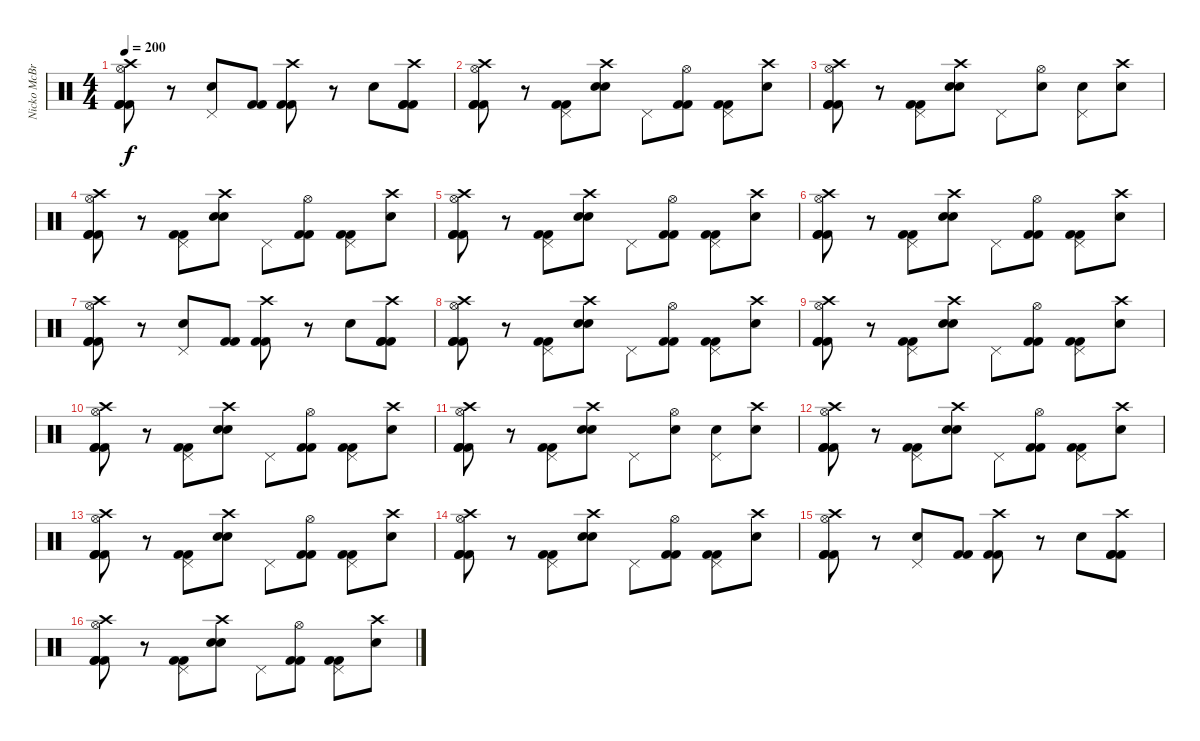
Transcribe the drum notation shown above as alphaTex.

\track ("Nicko McBrain" "Nicko McBr") {instrument percussion}
\staff {score}
\articulation defaults
\ts (4 4)
\tempo 200
\clef neutral
\ks c
("Crash high (hit)" "Hi-Hat (open)" "Kick (hit) 2" "Kick (hit) 2" "Kick (hit) 2").8{dy f} r.8 ("Pedal Hi-Hat (hit)" "Snare (hit) 2").8 ("Kick (hit) 2" "Kick (hit) 2").8 ("Crash high (hit)" "Kick (hit) 2" "Kick (hit) 2").8 r.8 "Snare (hit) 2".8 ("Crash high (hit)" "Kick (hit) 2" "Kick (hit) 2" "Kick (hit) 2").8 |
("Crash high (hit)" "Hi-Hat (open)" "Kick (hit) 2" "Kick (hit) 2" "Kick (hit) 2").8 r.8 ("Pedal Hi-Hat (hit)" "Kick (hit) 2" "Kick (hit) 2").8 ("Crash high (hit)" "Snare (hit) 2" "Snare (hit) 2").8 "Pedal Hi-Hat (hit)".8 ("Hi-Hat (open)" "Kick (hit) 2" "Kick (hit) 2").8 ("Pedal Hi-Hat (hit)" "Kick (hit) 2" "Kick (hit) 2").8 ("Crash high (hit)" "Snare (hit) 2").8 |
("Crash high (hit)" "Hi-Hat (open)" "Kick (hit) 2" "Kick (hit) 2" "Kick (hit) 2").8 r.8 ("Pedal Hi-Hat (hit)" "Kick (hit) 2" "Kick (hit) 2").8 ("Crash high (hit)" "Snare (hit) 2" "Snare (hit) 2").8 "Pedal Hi-Hat (hit)".8 ("Hi-Hat (open)" "Snare (hit) 2").8 ("Pedal Hi-Hat (hit)" "Snare (hit) 2").8 ("Crash high (hit)" "Snare (hit) 2").8 |
("Crash high (hit)" "Hi-Hat (open)" "Kick (hit) 2" "Kick (hit) 2" "Kick (hit) 2").8 r.8 ("Pedal Hi-Hat (hit)" "Kick (hit) 2" "Kick (hit) 2").8 ("Crash high (hit)" "Snare (hit) 2" "Snare (hit) 2").8 "Pedal Hi-Hat (hit)".8 ("Hi-Hat (open)" "Kick (hit) 2" "Kick (hit) 2").8 ("Pedal Hi-Hat (hit)" "Kick (hit) 2" "Kick (hit) 2").8 ("Crash high (hit)" "Snare (hit) 2").8 |
("Crash high (hit)" "Hi-Hat (open)" "Kick (hit) 2" "Kick (hit) 2" "Kick (hit) 2").8 r.8 ("Pedal Hi-Hat (hit)" "Kick (hit) 2" "Kick (hit) 2").8 ("Crash high (hit)" "Snare (hit) 2" "Snare (hit) 2").8 "Pedal Hi-Hat (hit)".8 ("Hi-Hat (open)" "Kick (hit) 2" "Kick (hit) 2").8 ("Pedal Hi-Hat (hit)" "Kick (hit) 2" "Kick (hit) 2").8 ("Crash high (hit)" "Snare (hit) 2").8 |
("Crash high (hit)" "Hi-Hat (open)" "Kick (hit) 2" "Kick (hit) 2" "Kick (hit) 2").8 r.8 ("Pedal Hi-Hat (hit)" "Kick (hit) 2" "Kick (hit) 2").8 ("Crash high (hit)" "Snare (hit) 2" "Snare (hit) 2").8 "Pedal Hi-Hat (hit)".8 ("Hi-Hat (open)" "Kick (hit) 2" "Kick (hit) 2").8 ("Pedal Hi-Hat (hit)" "Kick (hit) 2" "Kick (hit) 2").8 ("Crash high (hit)" "Snare (hit) 2").8 |
("Crash high (hit)" "Hi-Hat (open)" "Kick (hit) 2" "Kick (hit) 2" "Kick (hit) 2").8 r.8 ("Pedal Hi-Hat (hit)" "Snare (hit) 2").8 ("Kick (hit) 2" "Kick (hit) 2").8 ("Crash high (hit)" "Kick (hit) 2" "Kick (hit) 2").8 r.8 "Snare (hit) 2".8 ("Crash high (hit)" "Kick (hit) 2" "Kick (hit) 2" "Kick (hit) 2").8 |
("Crash high (hit)" "Hi-Hat (open)" "Kick (hit) 2" "Kick (hit) 2" "Kick (hit) 2").8 r.8 ("Pedal Hi-Hat (hit)" "Kick (hit) 2" "Kick (hit) 2").8 ("Crash high (hit)" "Snare (hit) 2" "Snare (hit) 2").8 "Pedal Hi-Hat (hit)".8 ("Hi-Hat (open)" "Kick (hit) 2" "Kick (hit) 2").8 ("Pedal Hi-Hat (hit)" "Kick (hit) 2" "Kick (hit) 2").8 ("Crash high (hit)" "Snare (hit) 2").8 |
("Crash high (hit)" "Hi-Hat (open)" "Kick (hit) 2" "Kick (hit) 2" "Kick (hit) 2").8 r.8 ("Pedal Hi-Hat (hit)" "Kick (hit) 2" "Kick (hit) 2").8 ("Crash high (hit)" "Snare (hit) 2" "Snare (hit) 2").8 "Pedal Hi-Hat (hit)".8 ("Hi-Hat (open)" "Kick (hit) 2" "Kick (hit) 2").8 ("Pedal Hi-Hat (hit)" "Kick (hit) 2" "Kick (hit) 2").8 ("Crash high (hit)" "Snare (hit) 2").8 |
("Crash high (hit)" "Hi-Hat (open)" "Kick (hit) 2" "Kick (hit) 2" "Kick (hit) 2").8 r.8 ("Pedal Hi-Hat (hit)" "Kick (hit) 2" "Kick (hit) 2").8 ("Crash high (hit)" "Snare (hit) 2" "Snare (hit) 2").8 "Pedal Hi-Hat (hit)".8 ("Hi-Hat (open)" "Kick (hit) 2" "Kick (hit) 2").8 ("Pedal Hi-Hat (hit)" "Kick (hit) 2" "Kick (hit) 2").8 ("Crash high (hit)" "Snare (hit) 2").8 |
("Crash high (hit)" "Hi-Hat (open)" "Kick (hit) 2" "Kick (hit) 2" "Kick (hit) 2").8 r.8 ("Pedal Hi-Hat (hit)" "Kick (hit) 2" "Kick (hit) 2").8 ("Crash high (hit)" "Snare (hit) 2" "Snare (hit) 2").8 "Pedal Hi-Hat (hit)".8 ("Hi-Hat (open)" "Snare (hit) 2").8 ("Pedal Hi-Hat (hit)" "Snare (hit) 2").8 ("Crash high (hit)" "Snare (hit) 2").8 |
("Crash high (hit)" "Hi-Hat (open)" "Kick (hit) 2" "Kick (hit) 2" "Kick (hit) 2").8 r.8 ("Pedal Hi-Hat (hit)" "Kick (hit) 2" "Kick (hit) 2").8 ("Crash high (hit)" "Snare (hit) 2" "Snare (hit) 2").8 "Pedal Hi-Hat (hit)".8 ("Hi-Hat (open)" "Kick (hit) 2" "Kick (hit) 2").8 ("Pedal Hi-Hat (hit)" "Kick (hit) 2" "Kick (hit) 2").8 ("Crash high (hit)" "Snare (hit) 2").8 |
("Crash high (hit)" "Hi-Hat (open)" "Kick (hit) 2" "Kick (hit) 2" "Kick (hit) 2").8 r.8 ("Pedal Hi-Hat (hit)" "Kick (hit) 2" "Kick (hit) 2").8 ("Crash high (hit)" "Snare (hit) 2" "Snare (hit) 2").8 "Pedal Hi-Hat (hit)".8 ("Hi-Hat (open)" "Kick (hit) 2" "Kick (hit) 2").8 ("Pedal Hi-Hat (hit)" "Kick (hit) 2" "Kick (hit) 2").8 ("Crash high (hit)" "Snare (hit) 2").8 |
("Crash high (hit)" "Hi-Hat (open)" "Kick (hit) 2" "Kick (hit) 2" "Kick (hit) 2").8 r.8 ("Pedal Hi-Hat (hit)" "Kick (hit) 2" "Kick (hit) 2").8 ("Crash high (hit)" "Snare (hit) 2" "Snare (hit) 2").8 "Pedal Hi-Hat (hit)".8 ("Hi-Hat (open)" "Kick (hit) 2" "Kick (hit) 2").8 ("Pedal Hi-Hat (hit)" "Kick (hit) 2" "Kick (hit) 2").8 ("Crash high (hit)" "Snare (hit) 2").8 |
("Crash high (hit)" "Hi-Hat (open)" "Kick (hit) 2" "Kick (hit) 2" "Kick (hit) 2").8 r.8 ("Pedal Hi-Hat (hit)" "Snare (hit) 2").8 ("Kick (hit) 2" "Kick (hit) 2").8 ("Crash high (hit)" "Kick (hit) 2" "Kick (hit) 2").8 r.8 "Snare (hit) 2".8 ("Crash high (hit)" "Kick (hit) 2" "Kick (hit) 2" "Kick (hit) 2").8 |
("Crash high (hit)" "Hi-Hat (open)" "Kick (hit) 2" "Kick (hit) 2" "Kick (hit) 2").8 r.8 ("Pedal Hi-Hat (hit)" "Kick (hit) 2" "Kick (hit) 2").8 ("Crash high (hit)" "Snare (hit) 2" "Snare (hit) 2").8 "Pedal Hi-Hat (hit)".8 ("Hi-Hat (open)" "Kick (hit) 2" "Kick (hit) 2").8 ("Pedal Hi-Hat (hit)" "Kick (hit) 2" "Kick (hit) 2").8 ("Crash high (hit)" "Snare (hit) 2").8
